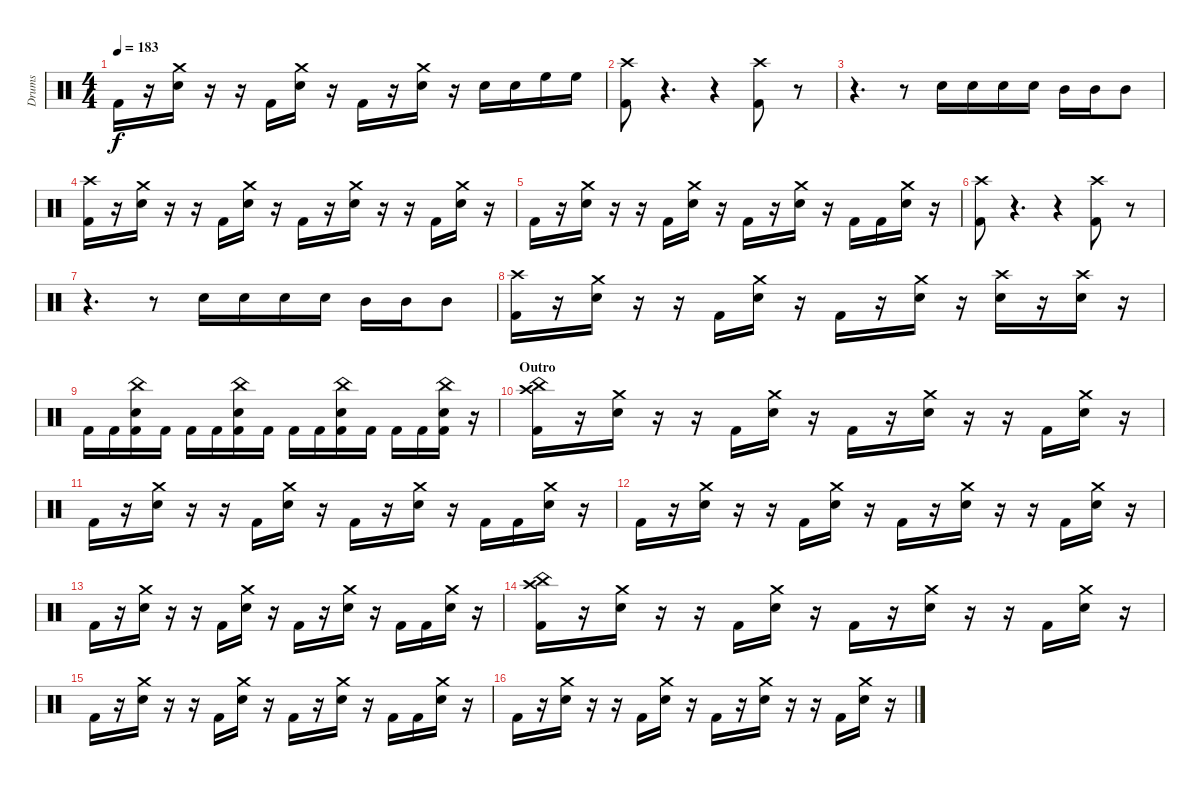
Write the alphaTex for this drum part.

\track ("Drums" "Drums") {instrument percussion}
\staff {score}
\articulation defaults
\ts (4 4)
\tempo 183
\clef neutral
\ks c "Kick (hit) 2".16{dy f}
r.16 ("Crash medium (hit)" "Electric Snare (hit)").16 r.16 r.16 "Kick (hit) 2".16 ("Crash medium (hit)" "Electric Snare (hit)").16 r.16 "Kick (hit) 2".16 r.16 ("Crash medium (hit)" "Electric Snare (hit)").16 r.16 "Electric Snare (hit)".16 "Electric Snare (hit)".16 "High Floor Tom (hit)".16 "High Floor Tom (hit)".16 |
("Crash high (hit)" "Kick (hit) 2").8 r.4{d volume 0} r.4 ("Crash high (hit)" "Kick (hit) 2").8{volume 16} r.8{volume 0} |
r.4{d} r.8{volume 16} "Electric Snare (hit)".16 "Electric Snare (hit)".16 "Electric Snare (hit)".16 "Electric Snare (hit)".16 "Mid Tom (hit)".16 "Mid Tom (hit)".16 "Mid Tom (hit)".8 |
("Crash high (hit)" "Kick (hit) 2").16 r.16 ("Crash medium (hit)" "Electric Snare (hit)").16 r.16 r.16 "Kick (hit) 2".16 ("Crash medium (hit)" "Electric Snare (hit)").16 r.16 "Kick (hit) 2".16 r.16 ("Crash medium (hit)" "Electric Snare (hit)").16 r.16 r.16 "Kick (hit) 2".16 ("Crash medium (hit)" "Electric Snare (hit)").16 r.16 |
"Kick (hit) 2".16 r.16 ("Crash medium (hit)" "Electric Snare (hit)").16 r.16 r.16 "Kick (hit) 2".16 ("Crash medium (hit)" "Electric Snare (hit)").16 r.16 "Kick (hit) 2".16 r.16 ("Crash medium (hit)" "Electric Snare (hit)").16 r.16 "Kick (hit) 2".16 "Kick (hit) 2".16 ("Crash medium (hit)" "Electric Snare (hit)").16 r.16 |
("Crash high (hit)" "Kick (hit) 2").8 r.4{d volume 0} r.4 ("Crash high (hit)" "Kick (hit) 2").8{volume 16} r.8{volume 0} |
r.4{d} r.8{volume 16} "Electric Snare (hit)".16 "Electric Snare (hit)".16 "Electric Snare (hit)".16 "Electric Snare (hit)".16 "Mid Tom (hit)".16 "Mid Tom (hit)".16 "Mid Tom (hit)".8 |
("Crash high (hit)" "Kick (hit) 2").16 r.16 ("Crash medium (hit)" "Electric Snare (hit)").16 r.16 r.16 "Kick (hit) 2".16 ("Crash medium (hit)" "Electric Snare (hit)").16 r.16 "Kick (hit) 2".16 r.16 ("Crash medium (hit)" "Electric Snare (hit)").16 r.16 ("Crash high (hit)" "Electric Snare (hit)").16 r.16 ("Crash high (hit)" "Electric Snare (hit)").16 r.16 |
"Kick (hit) 2".16 "Kick (hit) 2".16 ("China (hit)" "Electric Snare (hit)" "Kick (hit) 2").16 "Kick (hit) 2".16 "Kick (hit) 2".16 "Kick (hit) 2".16 ("China (hit)" "Electric Snare (hit)" "Kick (hit) 2").16 "Kick (hit) 2".16 "Kick (hit) 2".16 "Kick (hit) 2".16 ("China (hit)" "Electric Snare (hit)" "Kick (hit) 2").16 "Kick (hit) 2".16 "Kick (hit) 2".16 "Kick (hit) 2".16 ("China (hit)" "Electric Snare (hit)" "Kick (hit) 2").16 r.16 |
\section ("" "Outro")
("China (hit)" "Crash high (hit)" "Kick (hit) 2").16 r.16 ("Crash medium (hit)" "Electric Snare (hit)").16 r.16 r.16 "Kick (hit) 2".16 ("Crash medium (hit)" "Electric Snare (hit)").16 r.16 "Kick (hit) 2".16 r.16 ("Crash medium (hit)" "Electric Snare (hit)").16 r.16 r.16 "Kick (hit) 2".16 ("Crash medium (hit)" "Electric Snare (hit)").16 r.16 |
"Kick (hit) 2".16 r.16 ("Crash medium (hit)" "Electric Snare (hit)").16 r.16 r.16 "Kick (hit) 2".16 ("Crash medium (hit)" "Electric Snare (hit)").16 r.16 "Kick (hit) 2".16 r.16 ("Crash medium (hit)" "Electric Snare (hit)").16 r.16 "Kick (hit) 2".16 "Kick (hit) 2".16 ("Crash medium (hit)" "Electric Snare (hit)").16 r.16 |
"Kick (hit) 2".16 r.16 ("Crash medium (hit)" "Electric Snare (hit)").16 r.16 r.16 "Kick (hit) 2".16 ("Crash medium (hit)" "Electric Snare (hit)").16 r.16 "Kick (hit) 2".16 r.16 ("Crash medium (hit)" "Electric Snare (hit)").16 r.16 r.16 "Kick (hit) 2".16 ("Crash medium (hit)" "Electric Snare (hit)").16 r.16 |
"Kick (hit) 2".16 r.16 ("Crash medium (hit)" "Electric Snare (hit)").16 r.16 r.16 "Kick (hit) 2".16 ("Crash medium (hit)" "Electric Snare (hit)").16 r.16 "Kick (hit) 2".16 r.16 ("Crash medium (hit)" "Electric Snare (hit)").16 r.16 "Kick (hit) 2".16 "Kick (hit) 2".16 ("Crash medium (hit)" "Electric Snare (hit)").16 r.16 |
("China (hit)" "Crash high (hit)" "Kick (hit) 2").16 r.16 ("Crash medium (hit)" "Electric Snare (hit)").16 r.16 r.16 "Kick (hit) 2".16 ("Crash medium (hit)" "Electric Snare (hit)").16 r.16 "Kick (hit) 2".16 r.16 ("Crash medium (hit)" "Electric Snare (hit)").16 r.16 r.16 "Kick (hit) 2".16 ("Crash medium (hit)" "Electric Snare (hit)").16 r.16 |
"Kick (hit) 2".16 r.16 ("Crash medium (hit)" "Electric Snare (hit)").16 r.16 r.16 "Kick (hit) 2".16 ("Crash medium (hit)" "Electric Snare (hit)").16 r.16 "Kick (hit) 2".16 r.16 ("Crash medium (hit)" "Electric Snare (hit)").16 r.16 "Kick (hit) 2".16 "Kick (hit) 2".16 ("Crash medium (hit)" "Electric Snare (hit)").16 r.16 |
"Kick (hit) 2".16{volume 16} r.16 ("Crash medium (hit)" "Electric Snare (hit)").16 r.16 r.16 "Kick (hit) 2".16 ("Crash medium (hit)" "Electric Snare (hit)").16 r.16 "Kick (hit) 2".16 r.16 ("Crash medium (hit)" "Electric Snare (hit)").16 r.16 r.16 "Kick (hit) 2".16 ("Crash medium (hit)" "Electric Snare (hit)").16 r.16
